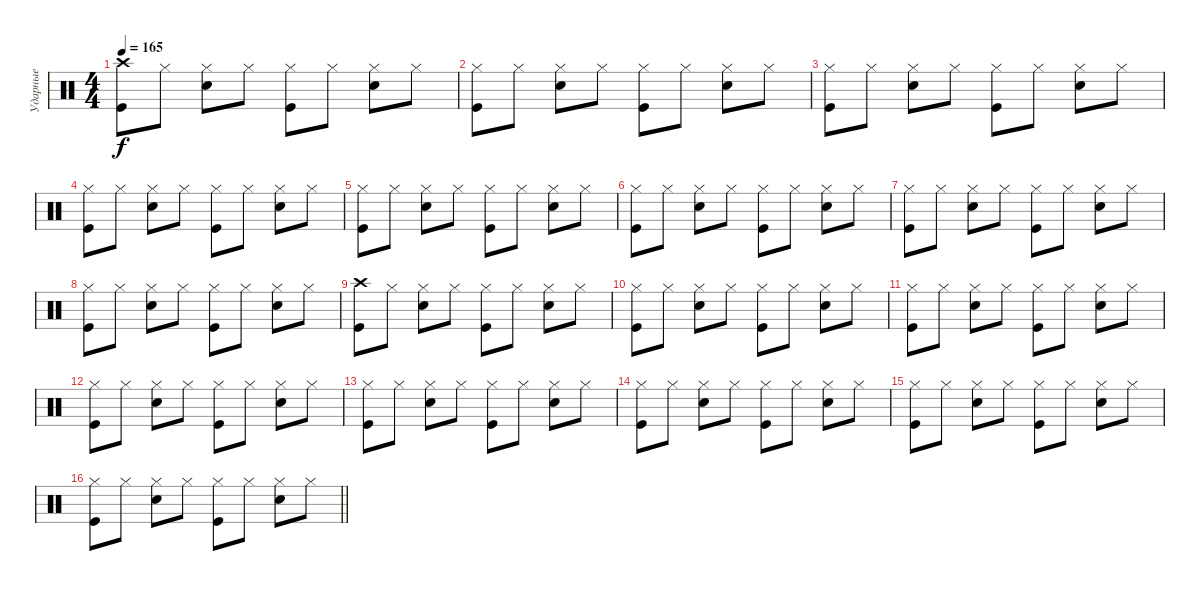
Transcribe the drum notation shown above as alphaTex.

\track ("Ударные" "Ударные") {instrument percussion}
\staff {score}
\articulation defaults
\ts (4 4)
\tempo 165
\clef neutral
\ks c
("Crash high (hit)" "Kick (hit)").8{dy f} "Hi-Hat (closed)".8 ("Hi-Hat (closed)" "Snare (hit) 2").8 "Hi-Hat (closed)".8 ("Hi-Hat (closed)" "Kick (hit)").8 "Hi-Hat (closed)".8 ("Hi-Hat (closed)" "Snare (hit) 2").8 "Hi-Hat (closed)".8 |
("Hi-Hat (closed)" "Kick (hit)").8 "Hi-Hat (closed)".8 ("Hi-Hat (closed)" "Snare (hit) 2").8 "Hi-Hat (closed)".8 ("Hi-Hat (closed)" "Kick (hit)").8 "Hi-Hat (closed)".8 ("Hi-Hat (closed)" "Snare (hit) 2").8 "Hi-Hat (closed)".8 |
("Hi-Hat (closed)" "Kick (hit)").8 "Hi-Hat (closed)".8 ("Hi-Hat (closed)" "Snare (hit) 2").8 "Hi-Hat (closed)".8 ("Hi-Hat (closed)" "Kick (hit)").8 "Hi-Hat (closed)".8 ("Hi-Hat (closed)" "Snare (hit) 2").8 "Hi-Hat (closed)".8 |
("Hi-Hat (closed)" "Kick (hit)").8 "Hi-Hat (closed)".8 ("Hi-Hat (closed)" "Snare (hit) 2").8 "Hi-Hat (closed)".8 ("Hi-Hat (closed)" "Kick (hit)").8 "Hi-Hat (closed)".8 ("Hi-Hat (closed)" "Snare (hit) 2").8 "Hi-Hat (closed)".8 |
("Hi-Hat (closed)" "Kick (hit)").8 "Hi-Hat (closed)".8 ("Hi-Hat (closed)" "Snare (hit) 2").8 "Hi-Hat (closed)".8 ("Hi-Hat (closed)" "Kick (hit)").8 "Hi-Hat (closed)".8 ("Hi-Hat (closed)" "Snare (hit) 2").8 "Hi-Hat (closed)".8 |
("Hi-Hat (closed)" "Kick (hit)").8 "Hi-Hat (closed)".8 ("Hi-Hat (closed)" "Snare (hit) 2").8 "Hi-Hat (closed)".8 ("Hi-Hat (closed)" "Kick (hit)").8 "Hi-Hat (closed)".8 ("Hi-Hat (closed)" "Snare (hit) 2").8 "Hi-Hat (closed)".8 |
("Hi-Hat (closed)" "Kick (hit)").8 "Hi-Hat (closed)".8 ("Hi-Hat (closed)" "Snare (hit) 2").8 "Hi-Hat (closed)".8 ("Hi-Hat (closed)" "Kick (hit)").8 "Hi-Hat (closed)".8 ("Hi-Hat (closed)" "Snare (hit) 2").8 "Hi-Hat (closed)".8 |
("Hi-Hat (closed)" "Kick (hit)").8 "Hi-Hat (closed)".8 ("Hi-Hat (closed)" "Snare (hit) 2").8 "Hi-Hat (closed)".8 ("Hi-Hat (closed)" "Kick (hit)").8 "Hi-Hat (closed)".8 ("Hi-Hat (closed)" "Snare (hit) 2").8 "Hi-Hat (closed)".8 |
("Crash high (hit)" "Kick (hit)").8 "Hi-Hat (closed)".8 ("Hi-Hat (closed)" "Snare (hit) 2").8 "Hi-Hat (closed)".8 ("Hi-Hat (closed)" "Kick (hit)").8 "Hi-Hat (closed)".8 ("Hi-Hat (closed)" "Snare (hit) 2").8 "Hi-Hat (closed)".8 |
("Hi-Hat (closed)" "Kick (hit)").8 "Hi-Hat (closed)".8 ("Hi-Hat (closed)" "Snare (hit) 2").8 "Hi-Hat (closed)".8 ("Hi-Hat (closed)" "Kick (hit)").8 "Hi-Hat (closed)".8 ("Hi-Hat (closed)" "Snare (hit) 2").8 "Hi-Hat (closed)".8 |
("Hi-Hat (closed)" "Kick (hit)").8 "Hi-Hat (closed)".8 ("Hi-Hat (closed)" "Snare (hit) 2").8 "Hi-Hat (closed)".8 ("Hi-Hat (closed)" "Kick (hit)").8 "Hi-Hat (closed)".8 ("Hi-Hat (closed)" "Snare (hit) 2").8 "Hi-Hat (closed)".8 |
("Hi-Hat (closed)" "Kick (hit)").8 "Hi-Hat (closed)".8 ("Hi-Hat (closed)" "Snare (hit) 2").8 "Hi-Hat (closed)".8 ("Hi-Hat (closed)" "Kick (hit)").8 "Hi-Hat (closed)".8 ("Hi-Hat (closed)" "Snare (hit) 2").8 "Hi-Hat (closed)".8 |
("Hi-Hat (closed)" "Kick (hit)").8 "Hi-Hat (closed)".8 ("Hi-Hat (closed)" "Snare (hit) 2").8 "Hi-Hat (closed)".8 ("Hi-Hat (closed)" "Kick (hit)").8 "Hi-Hat (closed)".8 ("Hi-Hat (closed)" "Snare (hit) 2").8 "Hi-Hat (closed)".8 |
("Hi-Hat (closed)" "Kick (hit)").8 "Hi-Hat (closed)".8 ("Hi-Hat (closed)" "Snare (hit) 2").8 "Hi-Hat (closed)".8 ("Hi-Hat (closed)" "Kick (hit)").8 "Hi-Hat (closed)".8 ("Hi-Hat (closed)" "Snare (hit) 2").8 "Hi-Hat (closed)".8 |
("Hi-Hat (closed)" "Kick (hit)").8 "Hi-Hat (closed)".8 ("Hi-Hat (closed)" "Snare (hit) 2").8 "Hi-Hat (closed)".8 ("Hi-Hat (closed)" "Kick (hit)").8 "Hi-Hat (closed)".8 ("Hi-Hat (closed)" "Snare (hit) 2").8 "Hi-Hat (closed)".8 |
\barLineRight lightlight
("Hi-Hat (closed)" "Kick (hit)").8 "Hi-Hat (closed)".8 ("Hi-Hat (closed)" "Snare (hit) 2").8 "Hi-Hat (closed)".8 ("Hi-Hat (closed)" "Kick (hit)").8 "Hi-Hat (closed)".8 ("Hi-Hat (closed)" "Snare (hit) 2").8 "Hi-Hat (closed)".8
